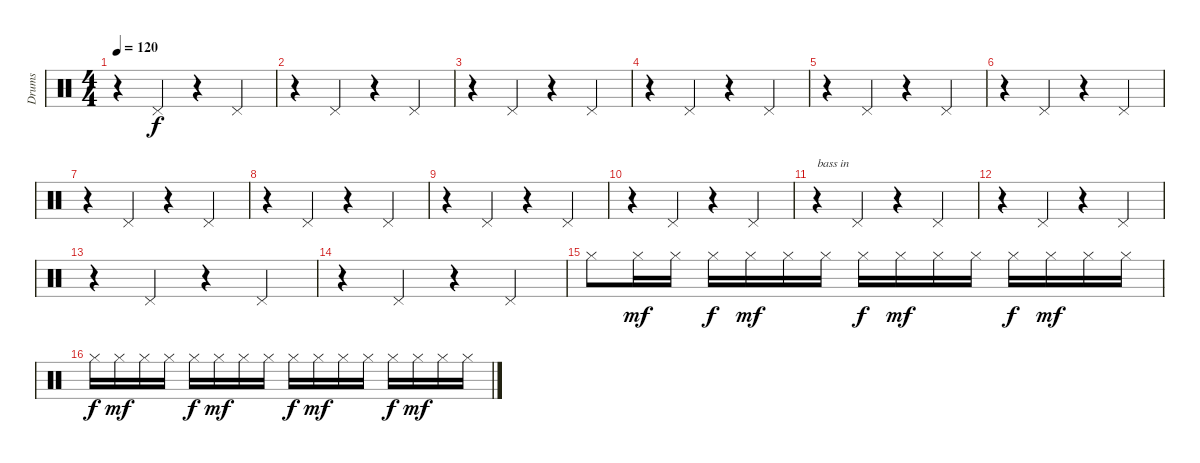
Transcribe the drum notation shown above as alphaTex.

\track ("Drums" "Drums") {instrument percussion}
\staff {score}
\articulation defaults
\ts (4 4)
\tempo 120
\clef neutral
\ks c
r.4{dy f} "Pedal Hi-Hat (hit)".4 r.4 "Pedal Hi-Hat (hit)".4 |
r.4 "Pedal Hi-Hat (hit)".4 r.4 "Pedal Hi-Hat (hit)".4 |
r.4 "Pedal Hi-Hat (hit)".4 r.4 "Pedal Hi-Hat (hit)".4 |
r.4 "Pedal Hi-Hat (hit)".4 r.4 "Pedal Hi-Hat (hit)".4 |
r.4 "Pedal Hi-Hat (hit)".4 r.4 "Pedal Hi-Hat (hit)".4 |
r.4 "Pedal Hi-Hat (hit)".4 r.4 "Pedal Hi-Hat (hit)".4 |
r.4 "Pedal Hi-Hat (hit)".4 r.4 "Pedal Hi-Hat (hit)".4 |
r.4 "Pedal Hi-Hat (hit)".4 r.4 "Pedal Hi-Hat (hit)".4 |
r.4 "Pedal Hi-Hat (hit)".4 r.4 "Pedal Hi-Hat (hit)".4 |
r.4 "Pedal Hi-Hat (hit)".4 r.4 "Pedal Hi-Hat (hit)".4 |
r.4{txt "bass in"} "Pedal Hi-Hat (hit)".4 r.4 "Pedal Hi-Hat (hit)".4 |
r.4 "Pedal Hi-Hat (hit)".4 r.4 "Pedal Hi-Hat (hit)".4 |
r.4 "Pedal Hi-Hat (hit)".4 r.4 "Pedal Hi-Hat (hit)".4 |
r.4 "Pedal Hi-Hat (hit)".4 r.4 "Pedal Hi-Hat (hit)".4 |
"Hi-Hat (closed)".8 "Hi-Hat (closed)".16{dy mf} "Hi-Hat (closed)".16 "Hi-Hat (closed)".16{dy f} "Hi-Hat (closed)".16{dy mf} "Hi-Hat (closed)".16 "Hi-Hat (closed)".16 "Hi-Hat (closed)".16{dy f} "Hi-Hat (closed)".16{dy mf} "Hi-Hat (closed)".16 "Hi-Hat (closed)".16 "Hi-Hat (closed)".16{dy f} "Hi-Hat (closed)".16{dy mf} "Hi-Hat (closed)".16 "Hi-Hat (closed)".16 |
"Hi-Hat (closed)".16{dy f} "Hi-Hat (closed)".16{dy mf} "Hi-Hat (closed)".16 "Hi-Hat (closed)".16 "Hi-Hat (closed)".16{dy f} "Hi-Hat (closed)".16{dy mf} "Hi-Hat (closed)".16 "Hi-Hat (closed)".16 "Hi-Hat (closed)".16{dy f} "Hi-Hat (closed)".16{dy mf} "Hi-Hat (closed)".16 "Hi-Hat (closed)".16 "Hi-Hat (closed)".16{dy f} "Hi-Hat (closed)".16{dy mf} "Hi-Hat (closed)".16 "Hi-Hat (closed)".16
